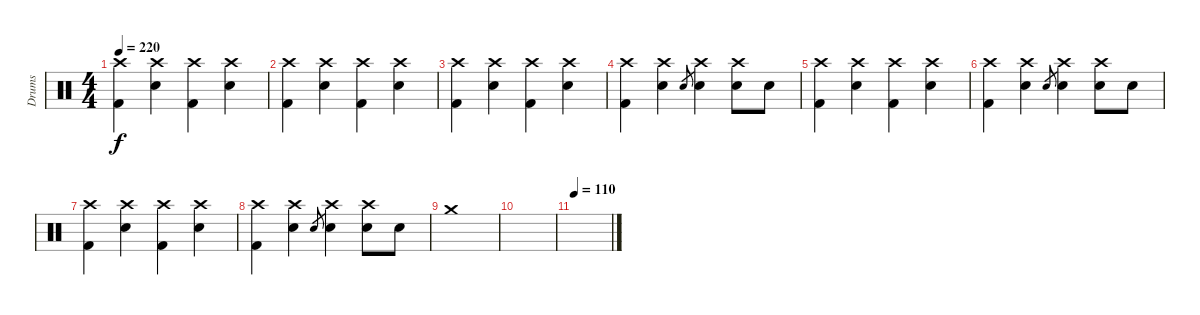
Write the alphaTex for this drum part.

\track ("Drums" "Drums") {instrument percussion}
\staff {score}
\articulation defaults
\ts (4 4)
\tempo 220
\clef neutral
\ks c
("Crash high (hit)" "Kick (hit) 2").4{dy f} ("Crash high (hit)" "Electric Snare (hit)").4 ("Crash high (hit)" "Kick (hit) 2").4 ("Crash high (hit)" "Electric Snare (hit)").4 |
("Crash high (hit)" "Kick (hit) 2").4 ("Crash high (hit)" "Electric Snare (hit)").4 ("Crash high (hit)" "Kick (hit) 2").4 ("Crash high (hit)" "Electric Snare (hit)").4 |
("Crash high (hit)" "Kick (hit) 2").4 ("Crash high (hit)" "Electric Snare (hit)").4 ("Crash high (hit)" "Kick (hit) 2").4 ("Crash high (hit)" "Electric Snare (hit)").4 |
("Crash high (hit)" "Kick (hit) 2").4 ("Crash high (hit)" "Electric Snare (hit)").4 "Electric Snare (hit)".8{gr} ("Crash high (hit)" "Electric Snare (hit)").4 ("Crash high (hit)" "Electric Snare (hit)").8 "Electric Snare (hit)".8 |
("Crash high (hit)" "Kick (hit) 2").4 ("Crash high (hit)" "Electric Snare (hit)").4 ("Crash high (hit)" "Kick (hit) 2").4 ("Crash high (hit)" "Electric Snare (hit)").4 |
("Crash high (hit)" "Kick (hit) 2").4 ("Crash high (hit)" "Electric Snare (hit)").4 "Electric Snare (hit)".8{gr} ("Crash high (hit)" "Electric Snare (hit)").4 ("Crash high (hit)" "Electric Snare (hit)").8 "Electric Snare (hit)".8 |
("Crash high (hit)" "Kick (hit) 2").4 ("Crash high (hit)" "Electric Snare (hit)").4 ("Crash high (hit)" "Kick (hit) 2").4 ("Crash high (hit)" "Electric Snare (hit)").4 |
("Crash high (hit)" "Kick (hit) 2").4 ("Crash high (hit)" "Electric Snare (hit)").4 "Electric Snare (hit)".8{gr} ("Crash high (hit)" "Electric Snare (hit)").4 ("Crash high (hit)" "Electric Snare (hit)").8 "Electric Snare (hit)".8 |
"Crash medium (hit)".1 |
|
\tempo 110
